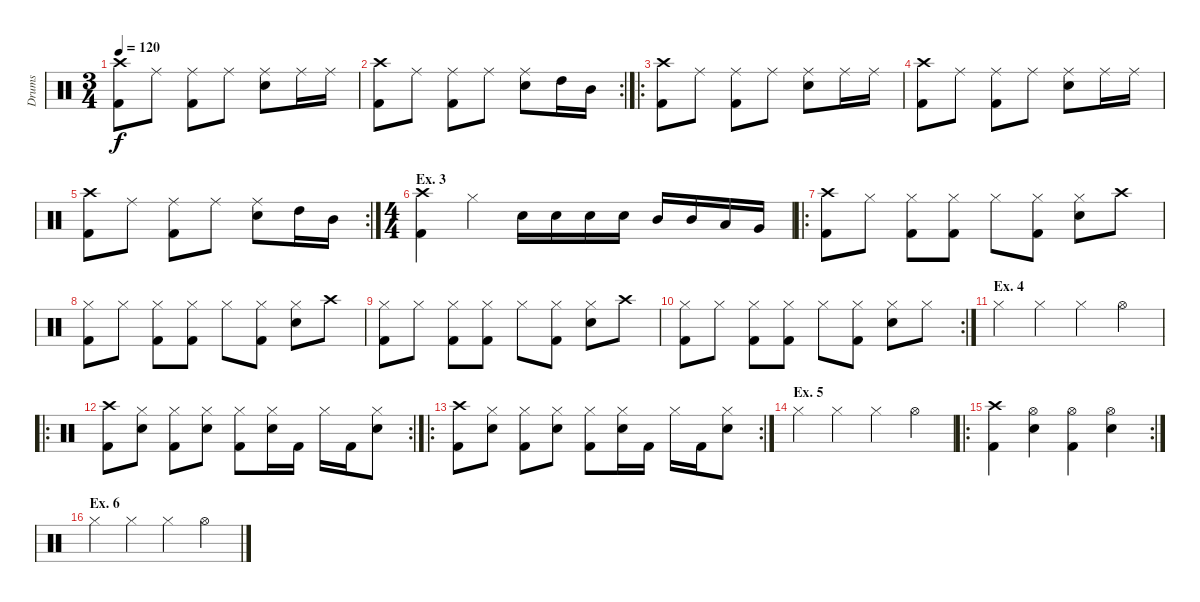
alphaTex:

\track ("Drums" "Drums") {instrument percussion}
\staff {score}
\articulation defaults
\ts (3 4)
\tempo 120
\clef neutral
\ks c
("Crash high (hit)" "Kick (hit) 2").8{dy f} "Ride (middle)".8 ("Ride (middle)" "Kick (hit) 2").8 "Ride (middle)".8 ("Ride (middle)" "Snare (hit) 2").8 "Ride (middle)".16 "Ride (middle)".16 |
\rc 2
("Crash high (hit)" "Kick (hit) 2").8 "Ride (middle)".8 ("Ride (middle)" "Kick (hit) 2").8 "Ride (middle)".8 ("Ride (middle)" "Snare (hit) 2").8 "High Tom (hit)".16 "Mid Tom (hit)".16 |
\ro
("Crash high (hit)" "Kick (hit) 2").8 "Ride (middle)".8 ("Ride (middle)" "Kick (hit) 2").8 "Ride (middle)".8 ("Ride (middle)" "Snare (hit) 2").8 "Ride (middle)".16 "Ride (middle)".16 |
("Crash high (hit)" "Kick (hit) 2").8 "Ride (middle)".8 ("Ride (middle)" "Kick (hit) 2").8 "Ride (middle)".8 ("Ride (middle)" "Snare (hit) 2").8 "Ride (middle)".16 "Ride (middle)".16 |
\rc 2
("Crash high (hit)" "Kick (hit) 2").8 "Ride (middle)".8 ("Ride (middle)" "Kick (hit) 2").8 "Ride (middle)".8 ("Ride (middle)" "Snare (hit) 2").8 "High Tom (hit)".16 "Mid Tom (hit)".16 |
\ts (4 4)
\section ("" "Ex. 3")
("Crash high (hit)" "Kick (hit) 2").4 "Hi-Hat (closed)".4 "Snare (hit) 2".16 "Snare (hit) 2".16 "Snare (hit) 2".16 "Snare (hit) 2".16 "Mid Tom (hit)".16 "Mid Tom (hit)".16 "Low Tom (hit)".16 "Very Low Tom (hit)".16 |
\ro
("Crash high (hit)" "Kick (hit) 2").8 "Hi-Hat (closed)".8 ("Hi-Hat (closed)" "Kick (hit) 2").8 ("Hi-Hat (closed)" "Kick (hit) 2").8 "Hi-Hat (closed)".8 ("Hi-Hat (closed)" "Kick (hit) 2").8 ("Hi-Hat (closed)" "Snare (hit) 2").8 "Crash high (hit)".8 |
("Hi-Hat (closed)" "Kick (hit) 2").8 "Hi-Hat (closed)".8 ("Hi-Hat (closed)" "Kick (hit) 2").8 ("Hi-Hat (closed)" "Kick (hit) 2").8 "Hi-Hat (closed)".8 ("Hi-Hat (closed)" "Kick (hit) 2").8 ("Hi-Hat (closed)" "Snare (hit) 2").8 "Crash high (hit)".8 |
("Hi-Hat (closed)" "Kick (hit) 2").8 "Hi-Hat (closed)".8 ("Hi-Hat (closed)" "Kick (hit) 2").8 ("Hi-Hat (closed)" "Kick (hit) 2").8 "Hi-Hat (closed)".8 ("Hi-Hat (closed)" "Kick (hit) 2").8 ("Hi-Hat (closed)" "Snare (hit) 2").8 "Crash high (hit)".8 |
\rc 2
("Hi-Hat (closed)" "Kick (hit) 2").8 "Hi-Hat (closed)".8 ("Hi-Hat (closed)" "Kick (hit) 2").8 ("Hi-Hat (closed)" "Kick (hit) 2").8 "Hi-Hat (closed)".8 ("Hi-Hat (closed)" "Kick (hit) 2").8 ("Hi-Hat (closed)" "Snare (hit) 2").8 "Hi-Hat (closed)".8 |
\section ("" "Ex. 4")
"Hi-Hat (closed)".4 "Hi-Hat (closed)".4 "Hi-Hat (closed)".4 "Hi-Hat (open)".4 |
\ro
\rc 2
("Crash high (hit)" "Kick (hit) 2").8 ("Hi-Hat (closed)" "Snare (hit) 2").8 ("Hi-Hat (closed)" "Kick (hit) 2").8 ("Hi-Hat (closed)" "Snare (hit) 2").8 ("Hi-Hat (closed)" "Kick (hit) 2").8 ("Hi-Hat (closed)" "Snare (hit) 2").16 "Kick (hit) 2".16 "Hi-Hat (closed)".16 "Kick (hit) 2".16 ("Hi-Hat (closed)" "Snare (hit) 2").8 |
\ro
\rc 2
("Crash high (hit)" "Kick (hit) 2").8 ("Hi-Hat (closed)" "Snare (hit) 2").8 ("Hi-Hat (closed)" "Kick (hit) 2").8 ("Hi-Hat (closed)" "Snare (hit) 2").8 ("Hi-Hat (closed)" "Kick (hit) 2").8 ("Hi-Hat (closed)" "Snare (hit) 2").16 "Kick (hit) 2".16 "Hi-Hat (closed)".16 "Kick (hit) 2".16 ("Hi-Hat (closed)" "Snare (hit) 2").8 |
\section ("" "Ex. 5")
"Hi-Hat (closed)".4 "Hi-Hat (closed)".4 "Hi-Hat (closed)".4 "Hi-Hat (open)".4 |
\ro
\rc 2
("Crash high (hit)" "Kick (hit) 2").4 ("Hi-Hat (open)" "Snare (hit) 2").4 ("Hi-Hat (open)" "Kick (hit) 2").4 ("Hi-Hat (open)" "Snare (hit) 2").4 |
\section ("" "Ex. 6")
"Hi-Hat (closed)".4 "Hi-Hat (closed)".4 "Hi-Hat (closed)".4 "Hi-Hat (open)".4
